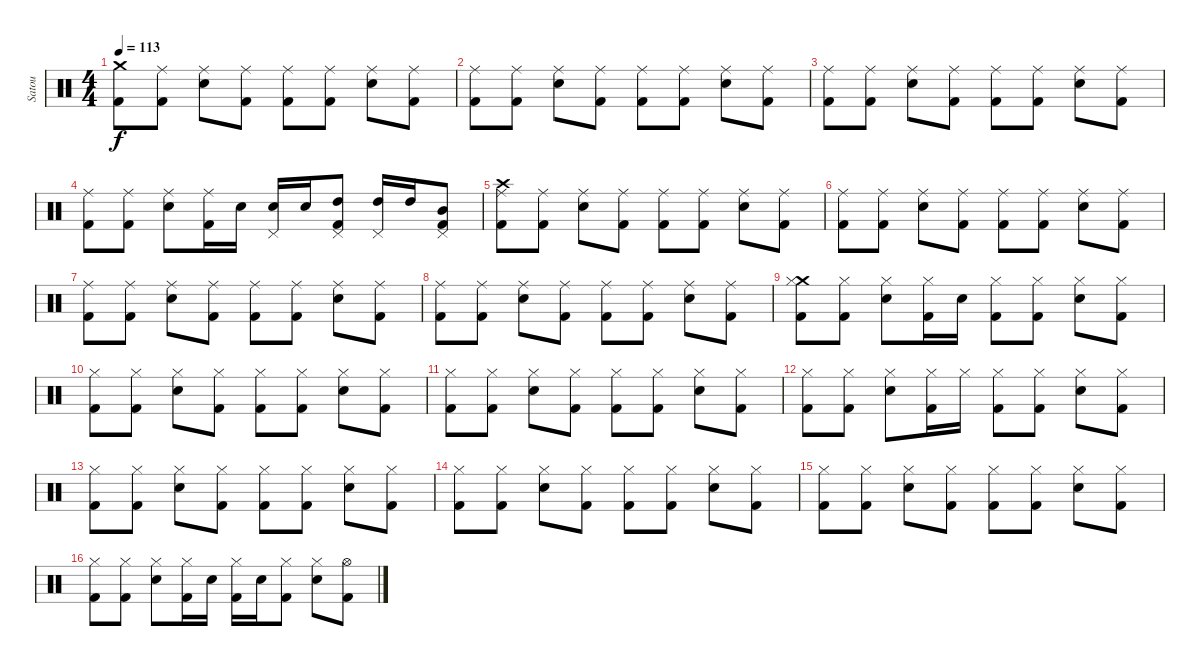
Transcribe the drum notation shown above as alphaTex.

\track ("Satou" "Satou") {instrument percussion}
\staff {score}
\articulation defaults
\ts (4 4)
\tempo 113
\clef neutral
\ks c
("Crash medium (hit)" "Kick (hit) 2").8{dy f} ("Ride (middle)" "Kick (hit) 2").8 ("Ride (middle)" "Electric Snare (hit)").8 ("Ride (middle)" "Kick (hit) 2").8 ("Ride (middle)" "Kick (hit) 2").8 ("Ride (middle)" "Kick (hit) 2").8 ("Ride (middle)" "Electric Snare (hit)").8 ("Ride (middle)" "Kick (hit) 2").8 |
("Ride (middle)" "Kick (hit) 2").8 ("Ride (middle)" "Kick (hit) 2").8 ("Ride (middle)" "Electric Snare (hit)").8 ("Ride (middle)" "Kick (hit) 2").8 ("Ride (middle)" "Kick (hit) 2").8 ("Ride (middle)" "Kick (hit) 2").8 ("Ride (middle)" "Electric Snare (hit)").8 ("Ride (middle)" "Kick (hit) 2").8 |
("Ride (middle)" "Kick (hit) 2").8 ("Ride (middle)" "Kick (hit) 2").8 ("Ride (middle)" "Electric Snare (hit)").8 ("Ride (middle)" "Kick (hit) 2").8 ("Ride (middle)" "Kick (hit) 2").8 ("Ride (middle)" "Kick (hit) 2").8 ("Ride (middle)" "Electric Snare (hit)").8 ("Ride (middle)" "Kick (hit) 2").8 |
("Ride (middle)" "Kick (hit) 2").8 ("Ride (middle)" "Kick (hit) 2").8 ("Ride (middle)" "Electric Snare (hit)").8 ("Ride (middle)" "Kick (hit) 2").16 "Electric Snare (hit)".16 ("Pedal Hi-Hat (hit)" "Electric Snare (hit)").16 "Electric Snare (hit)".16 ("Pedal Hi-Hat (hit)" "High Tom (hit)" "Kick (hit) 2").8 ("Pedal Hi-Hat (hit)" "High Tom (hit)").16 "High Tom (hit)".16 ("Pedal Hi-Hat (hit)" "Mid Tom (hit)" "Kick (hit) 2").8 |
("Crash high (hit)" "Ride (middle)" "Kick (hit) 2").8 ("Ride (middle)" "Kick (hit) 2").8 ("Ride (middle)" "Electric Snare (hit)").8 ("Ride (middle)" "Kick (hit) 2").8 ("Ride (middle)" "Kick (hit) 2").8 ("Ride (middle)" "Kick (hit) 2").8 ("Ride (middle)" "Electric Snare (hit)").8 ("Ride (middle)" "Kick (hit) 2").8 |
("Ride (middle)" "Kick (hit) 2").8 ("Ride (middle)" "Kick (hit) 2").8 ("Ride (middle)" "Electric Snare (hit)").8 ("Ride (middle)" "Kick (hit) 2").8 ("Ride (middle)" "Kick (hit) 2").8 ("Ride (middle)" "Kick (hit) 2").8 ("Ride (middle)" "Electric Snare (hit)").8 ("Ride (middle)" "Kick (hit) 2").8 |
("Ride (middle)" "Kick (hit) 2").8 ("Ride (middle)" "Kick (hit) 2").8 ("Ride (middle)" "Electric Snare (hit)").8 ("Ride (middle)" "Kick (hit) 2").8 ("Ride (middle)" "Kick (hit) 2").8 ("Ride (middle)" "Kick (hit) 2").8 ("Ride (middle)" "Electric Snare (hit)").8 ("Ride (middle)" "Kick (hit) 2").8 |
("Ride (middle)" "Kick (hit) 2").8 ("Ride (middle)" "Kick (hit) 2").8 ("Ride (middle)" "Electric Snare (hit)").8 ("Ride (middle)" "Kick (hit) 2").8 ("Ride (middle)" "Kick (hit) 2").8 ("Ride (middle)" "Kick (hit) 2").8 ("Ride (middle)" "Electric Snare (hit)").8 ("Ride (middle)" "Kick (hit) 2").8 |
("Crash medium (hit)" "Hi-Hat (closed)" "Kick (hit) 2").8 ("Hi-Hat (closed)" "Kick (hit) 2").8 ("Hi-Hat (closed)" "Electric Snare (hit)").8 ("Hi-Hat (closed)" "Kick (hit) 2").16 "Electric Snare (hit)".16 ("Hi-Hat (closed)" "Kick (hit) 2").8 ("Hi-Hat (closed)" "Kick (hit) 2").8 ("Hi-Hat (closed)" "Electric Snare (hit)").8 ("Hi-Hat (closed)" "Kick (hit) 2").8 |
("Hi-Hat (closed)" "Kick (hit) 2").8 ("Hi-Hat (closed)" "Kick (hit) 2").8 ("Hi-Hat (closed)" "Electric Snare (hit)").8 ("Hi-Hat (closed)" "Kick (hit) 2").8 ("Hi-Hat (closed)" "Kick (hit) 2").8 ("Hi-Hat (closed)" "Kick (hit) 2").8 ("Hi-Hat (closed)" "Electric Snare (hit)").8 ("Hi-Hat (closed)" "Kick (hit) 2").8 |
("Hi-Hat (closed)" "Kick (hit) 2").8 ("Hi-Hat (closed)" "Kick (hit) 2").8 ("Hi-Hat (closed)" "Electric Snare (hit)").8 ("Hi-Hat (closed)" "Kick (hit) 2").8 ("Hi-Hat (closed)" "Kick (hit) 2").8 ("Hi-Hat (closed)" "Kick (hit) 2").8 ("Hi-Hat (closed)" "Electric Snare (hit)").8 ("Hi-Hat (closed)" "Kick (hit) 2").8 |
("Hi-Hat (closed)" "Kick (hit) 2").8 ("Hi-Hat (closed)" "Kick (hit) 2").8 ("Hi-Hat (closed)" "Electric Snare (hit)").8 ("Hi-Hat (closed)" "Kick (hit) 2").16 "Hi-Hat (closed)".16 ("Hi-Hat (closed)" "Kick (hit) 2").8 ("Hi-Hat (closed)" "Kick (hit) 2").8 ("Hi-Hat (closed)" "Electric Snare (hit)").8 ("Hi-Hat (closed)" "Kick (hit) 2").8 |
("Hi-Hat (closed)" "Kick (hit) 2").8 ("Hi-Hat (closed)" "Kick (hit) 2").8 ("Hi-Hat (closed)" "Electric Snare (hit)").8 ("Hi-Hat (closed)" "Kick (hit) 2").8 ("Hi-Hat (closed)" "Kick (hit) 2").8 ("Hi-Hat (closed)" "Kick (hit) 2").8 ("Hi-Hat (closed)" "Electric Snare (hit)").8 ("Hi-Hat (closed)" "Kick (hit) 2").8 |
("Hi-Hat (closed)" "Kick (hit) 2").8 ("Hi-Hat (closed)" "Kick (hit) 2").8 ("Hi-Hat (closed)" "Electric Snare (hit)").8 ("Hi-Hat (closed)" "Kick (hit) 2").8 ("Hi-Hat (closed)" "Kick (hit) 2").8 ("Hi-Hat (closed)" "Kick (hit) 2").8 ("Hi-Hat (closed)" "Electric Snare (hit)").8 ("Hi-Hat (closed)" "Kick (hit) 2").8 |
("Hi-Hat (closed)" "Kick (hit) 2").8 ("Hi-Hat (closed)" "Kick (hit) 2").8 ("Hi-Hat (closed)" "Electric Snare (hit)").8 ("Hi-Hat (closed)" "Kick (hit) 2").8 ("Hi-Hat (closed)" "Kick (hit) 2").8 ("Hi-Hat (closed)" "Kick (hit) 2").8 ("Hi-Hat (closed)" "Electric Snare (hit)").8 ("Hi-Hat (closed)" "Kick (hit) 2").8 |
("Hi-Hat (closed)" "Kick (hit) 2").8 ("Hi-Hat (closed)" "Kick (hit) 2").8 ("Hi-Hat (closed)" "Electric Snare (hit)").8 ("Hi-Hat (closed)" "Kick (hit) 2").16 "Electric Snare (hit)".16 ("Hi-Hat (closed)" "Kick (hit) 2").16 "Electric Snare (hit)".16 ("Hi-Hat (closed)" "Kick (hit) 2").8 ("Hi-Hat (closed)" "Electric Snare (hit)").8 ("Hi-Hat (open)" "Kick (hit) 2").8
